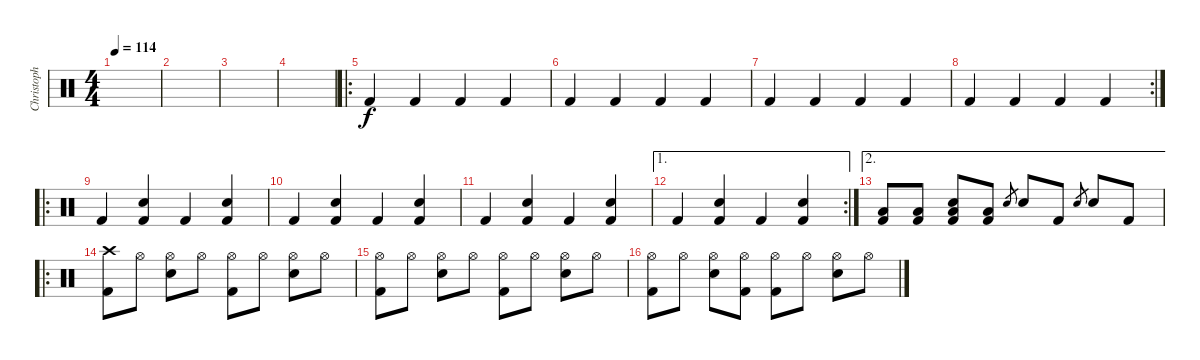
\track ("Christoph" "Christoph") {instrument percussion}
\staff {score}
\articulation defaults
\ts (4 4)
\tempo 114
\clef neutral
\ks c
|
|
|
|
\ro "Kick (hit) 2".4 "Kick (hit) 2".4 "Kick (hit) 2".4 "Kick (hit) 2".4
|
"Kick (hit) 2".4 "Kick (hit) 2".4 "Kick (hit) 2".4 "Kick (hit) 2".4 |
"Kick (hit) 2".4 "Kick (hit) 2".4 "Kick (hit) 2".4 "Kick (hit) 2".4 |
\rc 2 "Kick (hit) 2".4 "Kick (hit) 2".4 "Kick (hit) 2".4 "Kick (hit) 2".4
|
\ro "Kick (hit) 2".4
("Electric Snare (hit)" "Kick (hit) 2").4 "Kick (hit) 2".4 ("Electric Snare (hit)" "Kick (hit) 2").4 |
"Kick (hit) 2".4 ("Electric Snare (hit)" "Kick (hit) 2").4 "Kick (hit) 2".4 ("Electric Snare (hit)" "Kick (hit) 2").4 |
"Kick (hit) 2".4 ("Electric Snare (hit)" "Kick (hit) 2").4 "Kick (hit) 2".4 ("Electric Snare (hit)" "Kick (hit) 2").4 |
\ae 1
\rc 2 "Kick (hit) 2".4
("Electric Snare (hit)" "Kick (hit) 2").4 "Kick (hit) 2".4 ("Electric Snare (hit)" "Kick (hit) 2").4 |
\ae 2
("Low Floor Tom (hit)" "Kick (hit) 2").8 ("Low Floor Tom (hit)" "Kick (hit) 2").8 ("Low Floor Tom (hit)" "Electric Snare (hit)" "Kick (hit) 2").8 ("Low Floor Tom (hit)" "Kick (hit) 2").8 "Electric Snare (hit)".8{gr} "Electric Snare (hit)".8 "Kick (hit) 2".8 "Electric Snare (hit)".8{gr} "Electric Snare (hit)".8 "Kick (hit) 2".8 |
\ro
("Crash high (hit)" "Kick (hit) 2").8 "Hi-Hat (open)".8 ("Hi-Hat (open)" "Electric Snare (hit)").8 "Hi-Hat (open)".8 ("Hi-Hat (open)" "Kick (hit) 2").8 "Hi-Hat (open)".8 ("Hi-Hat (open)" "Electric Snare (hit)").8 "Hi-Hat (open)".8 |
("Hi-Hat (open)" "Kick (hit) 2").8 "Hi-Hat (open)".8 ("Hi-Hat (open)" "Electric Snare (hit)").8 "Hi-Hat (open)".8 ("Hi-Hat (open)" "Kick (hit) 2").8 "Hi-Hat (open)".8 ("Hi-Hat (open)" "Electric Snare (hit)").8 "Hi-Hat (open)".8 |
("Hi-Hat (open)" "Kick (hit) 2").8 "Hi-Hat (open)".8 ("Hi-Hat (open)" "Electric Snare (hit)").8 ("Hi-Hat (open)" "Kick (hit) 2").8 ("Hi-Hat (open)" "Kick (hit) 2").8 "Hi-Hat (open)".8 ("Hi-Hat (open)" "Electric Snare (hit)").8 "Hi-Hat (open)".8
